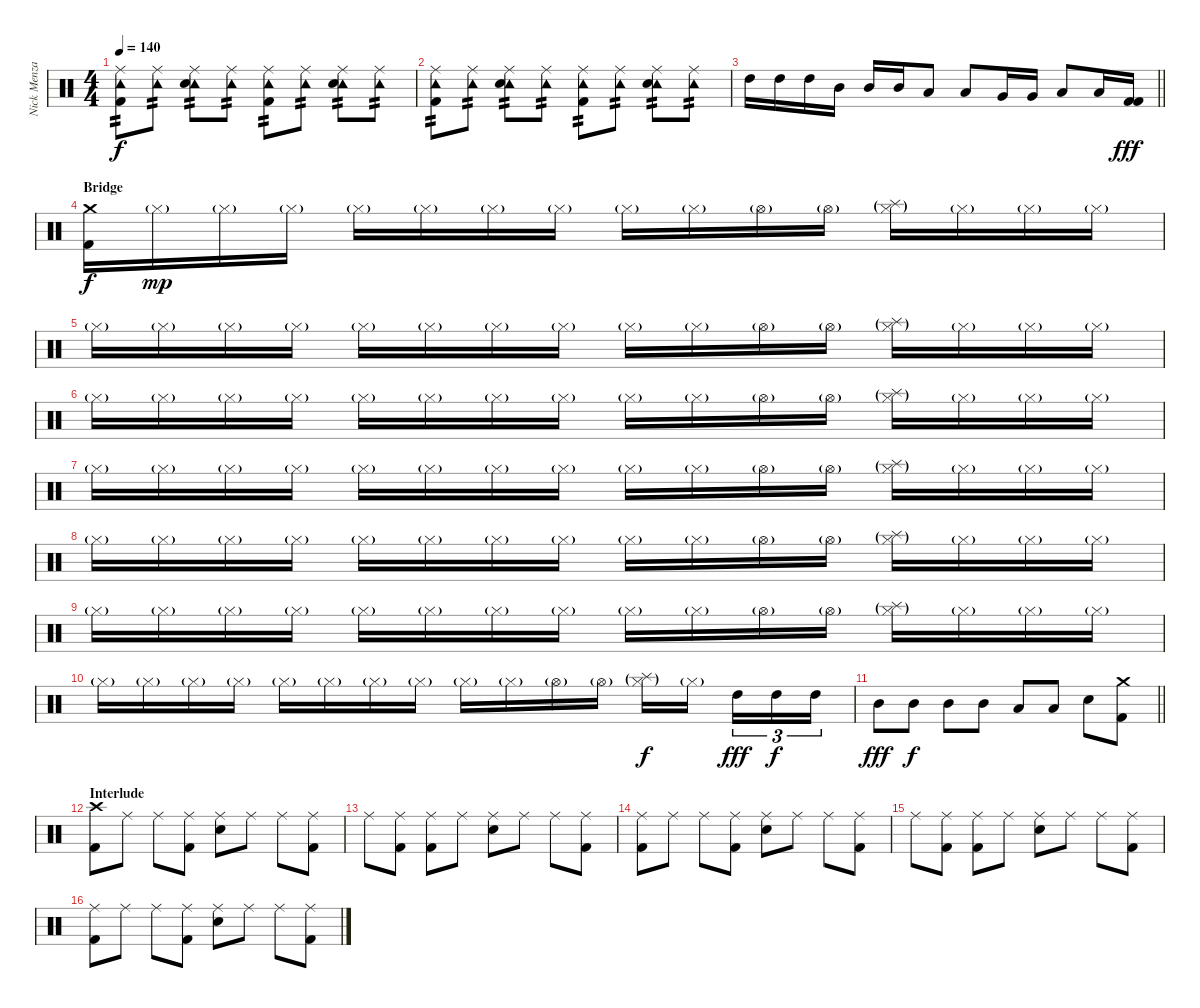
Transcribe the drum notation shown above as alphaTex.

\track ("Nick Menza" "Nick Menza") {instrument percussion}
\staff {score}
\articulation defaults
\ts (4 4)
\tempo 140
\clef neutral
\ks c
("Tambourine (hit)" "Ride (middle)" "Kick (hit) 2").8{tp 2 dy f} ("Tambourine (hit)" "Ride (middle)").8{tp 2} ("Tambourine (hit)" "Ride (middle)" "Snare (hit) 2").8{tp 2} ("Tambourine (hit)" "Ride (middle)").8{tp 2} ("Tambourine (hit)" "Ride (middle)" "Kick (hit) 2").8{tp 2} ("Tambourine (hit)" "Ride (middle)").8{tp 2} ("Tambourine (hit)" "Ride (middle)" "Snare (hit) 2").8{tp 2} ("Tambourine (hit)" "Ride (middle)").8{tp 2} |
("Tambourine (hit)" "Ride (middle)" "Kick (hit) 2").8{tp 2} ("Tambourine (hit)" "Ride (middle)").8{tp 2} ("Tambourine (hit)" "Ride (middle)" "Snare (hit) 2").8{tp 2} ("Tambourine (hit)" "Ride (middle)").8{tp 2} ("Tambourine (hit)" "Ride (middle)" "Kick (hit) 2").8{tp 2} ("Tambourine (hit)" "Ride (middle)").8{tp 2} ("Tambourine (hit)" "Ride (middle)" "Snare (hit) 2").8{tp 2} ("Tambourine (hit)" "Ride (middle)").8{tp 2} |
\barLineRight lightlight "High Tom (hit)".16 "High Tom (hit)".16 "High Tom (hit)".16 "Mid Tom (hit)".16 "Mid Tom (hit)".16 "Mid Tom (hit)".16 "Low Tom (hit)".8 "Low Tom (hit)".8 "Very Low Tom (hit)".16 "Very Low Tom (hit)".16 "Low Floor Tom (hit)".8 "Low Floor Tom (hit)".16
("Kick (hit) 2" "Kick (hit) 2").16{dy fff} |
\section ("" "Bridge")
("Crash medium (hit)" "Kick (hit) 2").16{dy f} "Hi-Hat (closed)"{g}.16{dy mp} "Hi-Hat (closed)"{g}.16 "Hi-Hat (closed)"{g}.16 "Hi-Hat (closed)"{g}.16 "Hi-Hat (closed)"{g}.16 "Hi-Hat (closed)"{g}.16 "Hi-Hat (closed)"{g}.16 "Hi-Hat (closed)"{g}.16 "Hi-Hat (closed)"{g}.16 "Hi-Hat (open)"{g}.16 "Hi-Hat (open)"{g}.16 ("Splash (hit)"{g} "Hi-Hat (closed)"{g}).16 "Hi-Hat (closed)"{g}.16 "Hi-Hat (closed)"{g}.16 "Hi-Hat (closed)"{g}.16 |
"Hi-Hat (closed)"{g}.16 "Hi-Hat (closed)"{g}.16 "Hi-Hat (closed)"{g}.16 "Hi-Hat (closed)"{g}.16 "Hi-Hat (closed)"{g}.16 "Hi-Hat (closed)"{g}.16 "Hi-Hat (closed)"{g}.16 "Hi-Hat (closed)"{g}.16 "Hi-Hat (closed)"{g}.16 "Hi-Hat (closed)"{g}.16 "Hi-Hat (open)"{g}.16 "Hi-Hat (open)"{g}.16 ("Splash (hit)"{g} "Hi-Hat (closed)"{g}).16 "Hi-Hat (closed)"{g}.16 "Hi-Hat (closed)"{g}.16 "Hi-Hat (closed)"{g}.16 |
"Hi-Hat (closed)"{g}.16 "Hi-Hat (closed)"{g}.16 "Hi-Hat (closed)"{g}.16 "Hi-Hat (closed)"{g}.16 "Hi-Hat (closed)"{g}.16 "Hi-Hat (closed)"{g}.16 "Hi-Hat (closed)"{g}.16 "Hi-Hat (closed)"{g}.16 "Hi-Hat (closed)"{g}.16 "Hi-Hat (closed)"{g}.16 "Hi-Hat (open)"{g}.16 "Hi-Hat (open)"{g}.16 ("Splash (hit)"{g} "Hi-Hat (closed)"{g}).16 "Hi-Hat (closed)"{g}.16 "Hi-Hat (closed)"{g}.16 "Hi-Hat (closed)"{g}.16 |
"Hi-Hat (closed)"{g}.16 "Hi-Hat (closed)"{g}.16 "Hi-Hat (closed)"{g}.16 "Hi-Hat (closed)"{g}.16 "Hi-Hat (closed)"{g}.16 "Hi-Hat (closed)"{g}.16 "Hi-Hat (closed)"{g}.16 "Hi-Hat (closed)"{g}.16 "Hi-Hat (closed)"{g}.16 "Hi-Hat (closed)"{g}.16 "Hi-Hat (open)"{g}.16 "Hi-Hat (open)"{g}.16 ("Splash (hit)"{g} "Hi-Hat (closed)"{g}).16 "Hi-Hat (closed)"{g}.16 "Hi-Hat (closed)"{g}.16 "Hi-Hat (closed)"{g}.16 |
"Hi-Hat (closed)"{g}.16 "Hi-Hat (closed)"{g}.16 "Hi-Hat (closed)"{g}.16 "Hi-Hat (closed)"{g}.16 "Hi-Hat (closed)"{g}.16 "Hi-Hat (closed)"{g}.16 "Hi-Hat (closed)"{g}.16 "Hi-Hat (closed)"{g}.16 "Hi-Hat (closed)"{g}.16 "Hi-Hat (closed)"{g}.16 "Hi-Hat (open)"{g}.16 "Hi-Hat (open)"{g}.16 ("Splash (hit)"{g} "Hi-Hat (closed)"{g}).16 "Hi-Hat (closed)"{g}.16 "Hi-Hat (closed)"{g}.16 "Hi-Hat (closed)"{g}.16 |
"Hi-Hat (closed)"{g}.16 "Hi-Hat (closed)"{g}.16 "Hi-Hat (closed)"{g}.16 "Hi-Hat (closed)"{g}.16 "Hi-Hat (closed)"{g}.16 "Hi-Hat (closed)"{g}.16 "Hi-Hat (closed)"{g}.16 "Hi-Hat (closed)"{g}.16 "Hi-Hat (closed)"{g}.16 "Hi-Hat (closed)"{g}.16 "Hi-Hat (open)"{g}.16 "Hi-Hat (open)"{g}.16 ("Splash (hit)"{g} "Hi-Hat (closed)"{g}).16 "Hi-Hat (closed)"{g}.16 "Hi-Hat (closed)"{g}.16 "Hi-Hat (closed)"{g}.16 |
"Hi-Hat (closed)"{g}.16 "Hi-Hat (closed)"{g}.16 "Hi-Hat (closed)"{g}.16 "Hi-Hat (closed)"{g}.16 "Hi-Hat (closed)"{g}.16 "Hi-Hat (closed)"{g}.16 "Hi-Hat (closed)"{g}.16 "Hi-Hat (closed)"{g}.16 "Hi-Hat (closed)"{g}.16 "Hi-Hat (closed)"{g}.16 "Hi-Hat (open)"{g}.16 "Hi-Hat (open)"{g}.16 ("Splash (hit)"{g} "Hi-Hat (closed)"{g}).16{dy f} "Hi-Hat (closed)"{g}.16{beam splitsecondary} "High Tom (hit)".16{tu (3 2) dy fff} "High Tom (hit)".16{tu (3 2) dy f} "High Tom (hit)".16{tu (3 2)} |
\barLineRight lightlight "Mid Tom (hit)".8{dy fff} "Mid Tom (hit)".8{dy f} "Mid Tom (hit)".8 "Mid Tom (hit)".8 "Low Tom (hit)".8 "Low Tom (hit)".8 "Snare (hit) 2".8
("Crash medium (hit)" "Kick (hit) 2").8 |
\section ("" "Interlude")
("Crash high (hit)" "Kick (hit) 2").8 "Ride (middle)".8 "Ride (middle)".8 ("Ride (middle)" "Kick (hit) 2").8 ("Ride (middle)" "Snare (hit) 2").8 "Ride (middle)".8 "Ride (middle)".8 ("Ride (middle)" "Kick (hit) 2").8 |
"Ride (middle)".8 ("Ride (middle)" "Kick (hit) 2").8 ("Ride (middle)" "Kick (hit) 2").8 "Ride (middle)".8 ("Ride (middle)" "Snare (hit) 2").8 "Ride (middle)".8 "Ride (middle)".8 ("Ride (middle)" "Kick (hit) 2").8 |
("Ride (middle)" "Kick (hit) 2").8 "Ride (middle)".8 "Ride (middle)".8 ("Ride (middle)" "Kick (hit) 2").8 ("Ride (middle)" "Snare (hit) 2").8 "Ride (middle)".8 "Ride (middle)".8 ("Ride (middle)" "Kick (hit) 2").8 |
"Ride (middle)".8 ("Ride (middle)" "Kick (hit) 2").8 ("Ride (middle)" "Kick (hit) 2").8 "Ride (middle)".8 ("Ride (middle)" "Snare (hit) 2").8 "Ride (middle)".8 "Ride (middle)".8 ("Ride (middle)" "Kick (hit) 2").8 |
("Ride (middle)" "Kick (hit) 2").8 "Ride (middle)".8 "Ride (middle)".8 ("Ride (middle)" "Kick (hit) 2").8 ("Ride (middle)" "Snare (hit) 2").8 "Ride (middle)".8 "Ride (middle)".8 ("Ride (middle)" "Kick (hit) 2").8
